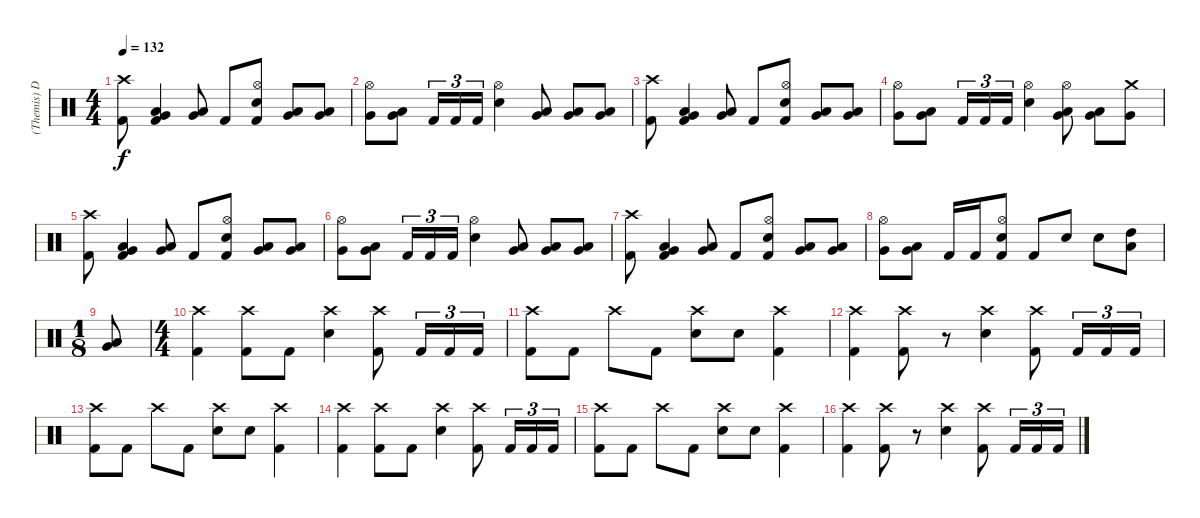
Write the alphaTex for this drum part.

\track ("(Themis) Drums" "(Themis) D") {instrument percussion}
\staff {score}
\articulation defaults
\ts (4 4)
\tempo 132
\clef neutral
\ks c
("Crash high (hit)" "Kick (hit) 2").8{dy f} ("Low Tom (hit)" "Very Low Tom (hit)" "Kick (hit) 2").4 ("Low Tom (hit)" "Very Low Tom (hit)").8 "Kick (hit) 2".8 ("Hi-Hat (open)" "Electric Snare (hit)" "Kick (hit) 2").8 ("Low Tom (hit)" "Very Low Tom (hit)").8 ("Low Tom (hit)" "Very Low Tom (hit)").8 |
("Hi-Hat (open)" "Very Low Tom (hit)").8 ("Low Tom (hit)" "Very Low Tom (hit)").8 "Kick (hit) 2".16{tu (3 2)} "Kick (hit) 2".16{tu (3 2)} "Kick (hit) 2".16{tu (3 2)} ("Hi-Hat (open)" "Electric Snare (hit)").4 ("Low Tom (hit)" "Very Low Tom (hit)").8 ("Low Tom (hit)" "Very Low Tom (hit)").8 ("Low Tom (hit)" "Very Low Tom (hit)").8 |
("Crash high (hit)" "Kick (hit) 2").8 ("Low Tom (hit)" "Very Low Tom (hit)" "Kick (hit) 2").4 ("Low Tom (hit)" "Very Low Tom (hit)").8 "Kick (hit) 2".8 ("Hi-Hat (open)" "Electric Snare (hit)" "Kick (hit) 2").8 ("Low Tom (hit)" "Very Low Tom (hit)").8 ("Low Tom (hit)" "Very Low Tom (hit)").8 |
("Hi-Hat (open)" "Very Low Tom (hit)").8 ("Low Tom (hit)" "Very Low Tom (hit)").8 "Kick (hit) 2".16{tu (3 2)} "Kick (hit) 2".16{tu (3 2)} "Kick (hit) 2".16{tu (3 2)} ("Hi-Hat (open)" "Electric Snare (hit)").4 ("Hi-Hat (open)" "Low Tom (hit)" "Very Low Tom (hit)").8 ("Low Tom (hit)" "Very Low Tom (hit)").8 ("Crash medium (hit)" "Very Low Tom (hit)").8 |
("Crash high (hit)" "Kick (hit) 2").8 ("Low Tom (hit)" "Very Low Tom (hit)" "Kick (hit) 2").4 ("Low Tom (hit)" "Very Low Tom (hit)").8 "Kick (hit) 2".8 ("Hi-Hat (open)" "Electric Snare (hit)" "Kick (hit) 2").8 ("Low Tom (hit)" "Very Low Tom (hit)").8 ("Low Tom (hit)" "Very Low Tom (hit)").8 |
("Hi-Hat (open)" "Very Low Tom (hit)").8 ("Low Tom (hit)" "Very Low Tom (hit)").8 "Kick (hit) 2".16{tu (3 2)} "Kick (hit) 2".16{tu (3 2)} "Kick (hit) 2".16{tu (3 2)} ("Hi-Hat (open)" "Electric Snare (hit)").4 ("Low Tom (hit)" "Very Low Tom (hit)").8 ("Low Tom (hit)" "Very Low Tom (hit)").8 ("Low Tom (hit)" "Very Low Tom (hit)").8 |
("Crash high (hit)" "Kick (hit) 2").8 ("Low Tom (hit)" "Very Low Tom (hit)" "Kick (hit) 2").4 ("Low Tom (hit)" "Very Low Tom (hit)").8 "Kick (hit) 2".8 ("Hi-Hat (open)" "Electric Snare (hit)" "Kick (hit) 2").8 ("Low Tom (hit)" "Very Low Tom (hit)").8 ("Low Tom (hit)" "Very Low Tom (hit)").8 |
("Hi-Hat (open)" "Very Low Tom (hit)").8 ("Low Tom (hit)" "Very Low Tom (hit)").8 "Kick (hit) 2".16 "Kick (hit) 2".16 ("Hi-Hat (open)" "Electric Snare (hit)" "Kick (hit) 2").8 "Kick (hit) 2".8 "Electric Snare (hit)".8 "Electric Snare (hit)".8 ("Low Tom (hit)" "High Tom (hit)").8 |
\ts (1 8)
("Low Tom (hit)" "Very Low Tom (hit)").8 |
\ts (4 4)
("Crash high (hit)" "Kick (hit) 2").4 ("Crash high (hit)" "Kick (hit) 2").8 "Kick (hit) 2".8 ("Crash high (hit)" "Electric Snare (hit)").4 ("Crash high (hit)" "Kick (hit) 2").8 "Kick (hit) 2".16{tu (3 2)} "Kick (hit) 2".16{tu (3 2)} "Kick (hit) 2".16{tu (3 2)} |
("Crash high (hit)" "Kick (hit) 2").8 "Kick (hit) 2".8 "Crash high (hit)".8 "Kick (hit) 2".8 ("Crash high (hit)" "Electric Snare (hit)").8 "Electric Snare (hit)".8 ("Crash high (hit)" "Kick (hit) 2").4 |
("Crash high (hit)" "Kick (hit) 2").4 ("Crash high (hit)" "Kick (hit) 2").8 r.8 ("Crash high (hit)" "Electric Snare (hit)").4 ("Crash high (hit)" "Kick (hit) 2").8 "Kick (hit) 2".16{tu (3 2)} "Kick (hit) 2".16{tu (3 2)} "Kick (hit) 2".16{tu (3 2)} |
("Crash high (hit)" "Kick (hit) 2").8 "Kick (hit) 2".8 "Crash high (hit)".8 "Kick (hit) 2".8 ("Crash high (hit)" "Electric Snare (hit)").8 "Electric Snare (hit)".8 ("Crash high (hit)" "Kick (hit) 2").4 |
("Crash high (hit)" "Kick (hit) 2").4 ("Crash high (hit)" "Kick (hit) 2").8 "Kick (hit) 2".8 ("Crash high (hit)" "Electric Snare (hit)").4 ("Crash high (hit)" "Kick (hit) 2").8 "Kick (hit) 2".16{tu (3 2)} "Kick (hit) 2".16{tu (3 2)} "Kick (hit) 2".16{tu (3 2)} |
("Crash high (hit)" "Kick (hit) 2").8 "Kick (hit) 2".8 "Crash high (hit)".8 "Kick (hit) 2".8 ("Crash high (hit)" "Electric Snare (hit)").8 "Electric Snare (hit)".8 ("Crash high (hit)" "Kick (hit) 2").4 |
("Crash high (hit)" "Kick (hit) 2").4 ("Crash high (hit)" "Kick (hit) 2").8 r.8 ("Crash high (hit)" "Electric Snare (hit)").4 ("Crash high (hit)" "Kick (hit) 2").8 "Kick (hit) 2".16{tu (3 2)} "Kick (hit) 2".16{tu (3 2)} "Kick (hit) 2".16{tu (3 2)}
